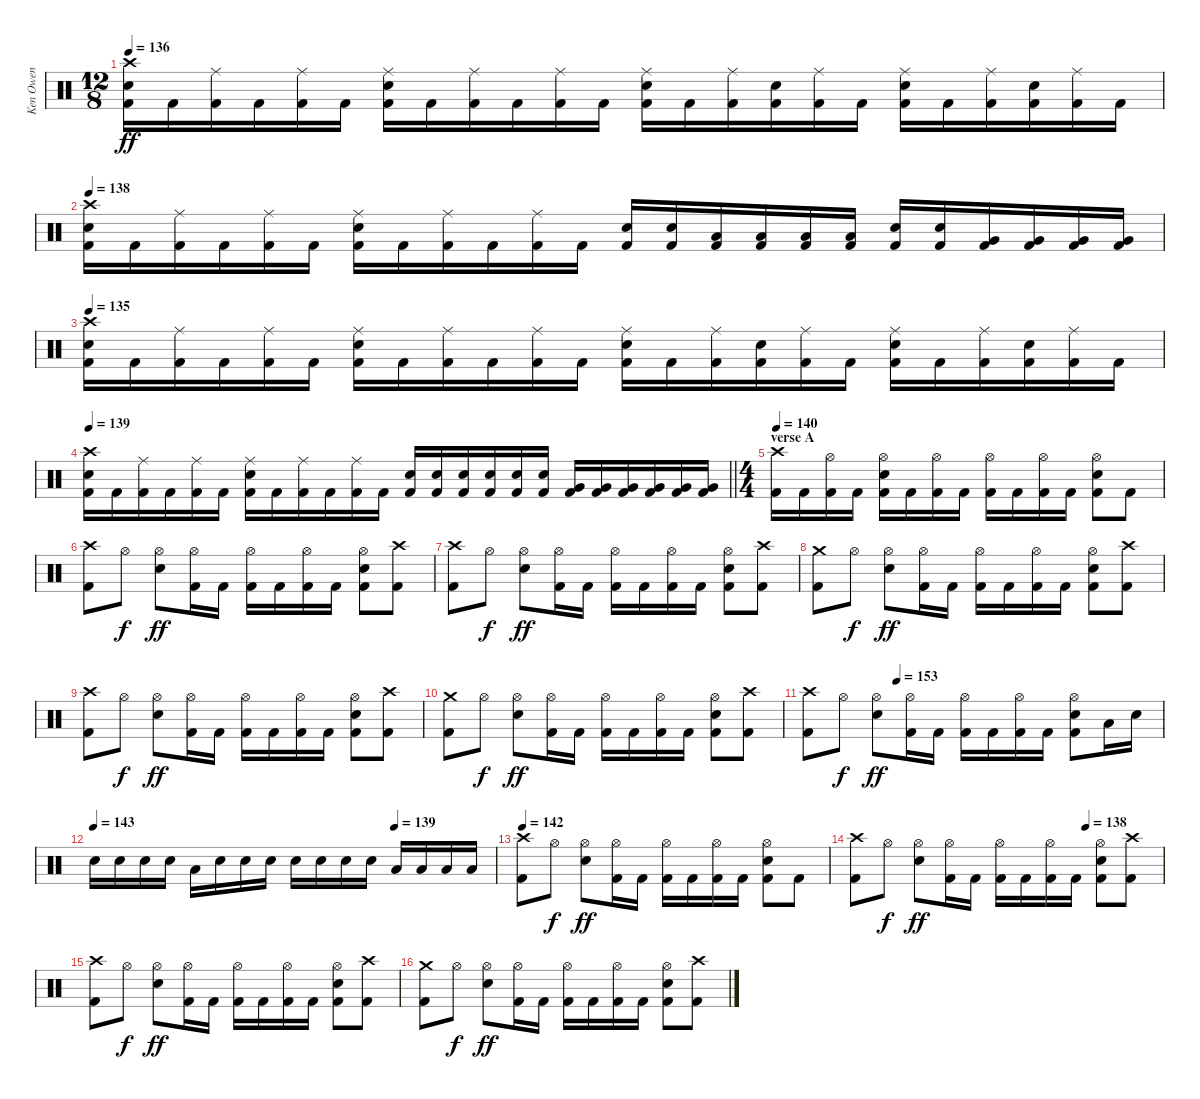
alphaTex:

\track ("Ken Owen" "Ken Owen") {instrument percussion}
\staff {score}
\articulation defaults
\ts (12 8)
\tempo 136
\clef neutral
\ks c
("Crash high (hit)" "Snare (hit) 2" "Kick (hit) 2").16{dy ff} "Kick (hit) 2".16 ("Ride (middle)" "Kick (hit) 2").16 "Kick (hit) 2".16 ("Ride (middle)" "Kick (hit) 2").16 "Kick (hit) 2".16 ("Ride (middle)" "Snare (hit) 2" "Kick (hit) 2").16 "Kick (hit) 2".16 ("Ride (middle)" "Kick (hit) 2").16 "Kick (hit) 2".16 ("Ride (middle)" "Kick (hit) 2").16 "Kick (hit) 2".16 ("Ride (middle)" "Snare (hit) 2" "Kick (hit) 2").16 "Kick (hit) 2".16 ("Ride (middle)" "Kick (hit) 2").16 ("Snare (hit) 2" "Kick (hit) 2").16 ("Ride (middle)" "Kick (hit) 2").16 "Kick (hit) 2".16 ("Ride (middle)" "Snare (hit) 2" "Kick (hit) 2").16 "Kick (hit) 2".16 ("Ride (middle)" "Kick (hit) 2").16 ("Snare (hit) 2" "Kick (hit) 2").16 ("Ride (middle)" "Kick (hit) 2").16 "Kick (hit) 2".16 |
\tempo 138
("Crash high (hit)" "Snare (hit) 2" "Kick (hit) 2").16 "Kick (hit) 2".16 ("Ride (middle)" "Kick (hit) 2").16 "Kick (hit) 2".16 ("Ride (middle)" "Kick (hit) 2").16 "Kick (hit) 2".16 ("Ride (middle)" "Snare (hit) 2" "Kick (hit) 2").16 "Kick (hit) 2".16 ("Ride (middle)" "Kick (hit) 2").16 "Kick (hit) 2".16 ("Ride (middle)" "Kick (hit) 2").16 "Kick (hit) 2".16 ("Snare (hit) 2" "Kick (hit) 2").16 ("Snare (hit) 2" "Kick (hit) 2").16 ("Low Tom (hit)" "Kick (hit) 2").16 ("Low Tom (hit)" "Kick (hit) 2").16 ("Low Tom (hit)" "Kick (hit) 2").16 ("Low Tom (hit)" "Kick (hit) 2").16 ("Snare (hit) 2" "Kick (hit) 2").16 ("Snare (hit) 2" "Kick (hit) 2").16 ("Very Low Tom (hit)" "Kick (hit) 2").16 ("Very Low Tom (hit)" "Kick (hit) 2").16 ("Very Low Tom (hit)" "Kick (hit) 2").16 ("Very Low Tom (hit)" "Kick (hit) 2").16 |
\tempo 135
("Crash high (hit)" "Snare (hit) 2" "Kick (hit) 2").16 "Kick (hit) 2".16 ("Ride (middle)" "Kick (hit) 2").16 "Kick (hit) 2".16 ("Ride (middle)" "Kick (hit) 2").16 "Kick (hit) 2".16 ("Ride (middle)" "Snare (hit) 2" "Kick (hit) 2").16 "Kick (hit) 2".16 ("Ride (middle)" "Kick (hit) 2").16 "Kick (hit) 2".16 ("Ride (middle)" "Kick (hit) 2").16 "Kick (hit) 2".16 ("Ride (middle)" "Snare (hit) 2" "Kick (hit) 2").16 "Kick (hit) 2".16 ("Ride (middle)" "Kick (hit) 2").16 ("Snare (hit) 2" "Kick (hit) 2").16 ("Ride (middle)" "Kick (hit) 2").16 "Kick (hit) 2".16 ("Ride (middle)" "Snare (hit) 2" "Kick (hit) 2").16 "Kick (hit) 2".16 ("Ride (middle)" "Kick (hit) 2").16 ("Snare (hit) 2" "Kick (hit) 2").16 ("Ride (middle)" "Kick (hit) 2").16 "Kick (hit) 2".16 |
\tempo 139
\barLineRight lightlight
("Crash high (hit)" "Snare (hit) 2" "Kick (hit) 2").16 "Kick (hit) 2".16 ("Ride (middle)" "Kick (hit) 2").16 "Kick (hit) 2".16 ("Ride (middle)" "Kick (hit) 2").16 "Kick (hit) 2".16 ("Ride (middle)" "Snare (hit) 2" "Kick (hit) 2").16 "Kick (hit) 2".16 ("Ride (middle)" "Kick (hit) 2").16 "Kick (hit) 2".16 ("Ride (middle)" "Kick (hit) 2").16 "Kick (hit) 2".16 ("Snare (hit) 2" "Kick (hit) 2").16 ("Snare (hit) 2" "Kick (hit) 2").16 ("Snare (hit) 2" "Kick (hit) 2").16 ("Snare (hit) 2" "Kick (hit) 2").16 ("Snare (hit) 2" "Kick (hit) 2").16 ("Snare (hit) 2" "Kick (hit) 2").16 ("Very Low Tom (hit)" "Kick (hit) 2").16 ("Very Low Tom (hit)" "Kick (hit) 2").16 ("Very Low Tom (hit)" "Kick (hit) 2").16 ("Very Low Tom (hit)" "Kick (hit) 2").16 ("Very Low Tom (hit)" "Kick (hit) 2").16 ("Very Low Tom (hit)" "Kick (hit) 2").16 |
\ts (4 4)
\section ("" "verse A")
\tempo 140
("Crash high (hit)" "Kick (hit) 2").16 "Kick (hit) 2".16 ("Hi-Hat (open)" "Kick (hit) 2").16 "Kick (hit) 2".16 ("Hi-Hat (open)" "Snare (hit) 2" "Kick (hit) 2").16 "Kick (hit) 2".16 ("Hi-Hat (open)" "Kick (hit) 2").16 "Kick (hit) 2".16 ("Hi-Hat (open)" "Kick (hit) 2").16 "Kick (hit) 2".16 ("Hi-Hat (open)" "Kick (hit) 2").16 "Kick (hit) 2".16 ("Hi-Hat (open)" "Snare (hit) 2" "Kick (hit) 2").8 "Kick (hit) 2".8 |
("Crash high (hit)" "Kick (hit) 2").8 "Hi-Hat (open)".8{dy f} ("Hi-Hat (open)" "Snare (hit) 2").8{dy ff} ("Hi-Hat (open)" "Kick (hit) 2").16 "Kick (hit) 2".16 ("Hi-Hat (open)" "Kick (hit) 2").16 "Kick (hit) 2".16 ("Hi-Hat (open)" "Kick (hit) 2").16 "Kick (hit) 2".16 ("Hi-Hat (open)" "Snare (hit) 2" "Kick (hit) 2").8 ("Crash high (hit)" "Kick (hit) 2").8 |
("Crash high (hit)" "Kick (hit) 2").8 "Hi-Hat (open)".8{dy f} ("Hi-Hat (open)" "Snare (hit) 2").8{dy ff} ("Hi-Hat (open)" "Kick (hit) 2").16 "Kick (hit) 2".16 ("Hi-Hat (open)" "Kick (hit) 2").16 "Kick (hit) 2".16 ("Hi-Hat (open)" "Kick (hit) 2").16 "Kick (hit) 2".16 ("Hi-Hat (open)" "Snare (hit) 2" "Kick (hit) 2").8 ("Crash high (hit)" "Kick (hit) 2").8 |
("Crash medium (hit)" "Kick (hit) 2").8 "Hi-Hat (open)".8{dy f} ("Hi-Hat (open)" "Snare (hit) 2").8{dy ff} ("Hi-Hat (open)" "Kick (hit) 2").16 "Kick (hit) 2".16 ("Hi-Hat (open)" "Kick (hit) 2").16 "Kick (hit) 2".16 ("Hi-Hat (open)" "Kick (hit) 2").16 "Kick (hit) 2".16 ("Hi-Hat (open)" "Snare (hit) 2" "Kick (hit) 2").8 ("Crash high (hit)" "Kick (hit) 2").8 |
("Crash high (hit)" "Kick (hit) 2").8 "Hi-Hat (open)".8{dy f} ("Hi-Hat (open)" "Snare (hit) 2").8{dy ff} ("Hi-Hat (open)" "Kick (hit) 2").16 "Kick (hit) 2".16 ("Hi-Hat (open)" "Kick (hit) 2").16 "Kick (hit) 2".16 ("Hi-Hat (open)" "Kick (hit) 2").16 "Kick (hit) 2".16 ("Hi-Hat (open)" "Snare (hit) 2" "Kick (hit) 2").8 ("Crash high (hit)" "Kick (hit) 2").8 |
("Crash medium (hit)" "Kick (hit) 2").8 "Hi-Hat (open)".8{dy f} ("Hi-Hat (open)" "Snare (hit) 2").8{dy ff} ("Hi-Hat (open)" "Kick (hit) 2").16 "Kick (hit) 2".16 ("Hi-Hat (open)" "Kick (hit) 2").16 "Kick (hit) 2".16 ("Hi-Hat (open)" "Kick (hit) 2").16 "Kick (hit) 2".16 ("Hi-Hat (open)" "Snare (hit) 2" "Kick (hit) 2").8 ("Crash high (hit)" "Kick (hit) 2").8 |
\tempo (153 0.25)
("Crash high (hit)" "Kick (hit) 2").8 "Hi-Hat (open)".8{dy f} ("Hi-Hat (open)" "Snare (hit) 2").8{dy ff} ("Hi-Hat (open)" "Kick (hit) 2").16 "Kick (hit) 2".16 ("Hi-Hat (open)" "Kick (hit) 2").16 "Kick (hit) 2".16 ("Hi-Hat (open)" "Kick (hit) 2").16 "Kick (hit) 2".16 ("Hi-Hat (open)" "Snare (hit) 2" "Kick (hit) 2").8 "Low Tom (hit)".16 "Snare (hit) 2".16 |
\tempo 143
\tempo (139 0.75)
"Snare (hit) 2".16 "Snare (hit) 2".16 "Snare (hit) 2".16 "Snare (hit) 2".16 "Low Tom (hit)".16 "Snare (hit) 2".16 "Snare (hit) 2".16 "Snare (hit) 2".16 "Snare (hit) 2".16 "Snare (hit) 2".16 "Snare (hit) 2".16 "Snare (hit) 2".16 "Low Tom (hit)".16 "Low Tom (hit)".16 "Low Tom (hit)".16 "Low Tom (hit)".16 |
\tempo 142
("Crash high (hit)" "Kick (hit) 2").8 "Hi-Hat (open)".8{dy f} ("Hi-Hat (open)" "Snare (hit) 2").8{dy ff} ("Hi-Hat (open)" "Kick (hit) 2").16 "Kick (hit) 2".16 ("Hi-Hat (open)" "Kick (hit) 2").16 "Kick (hit) 2".16 ("Hi-Hat (open)" "Kick (hit) 2").16 "Kick (hit) 2".16 ("Hi-Hat (open)" "Snare (hit) 2" "Kick (hit) 2").8 "Kick (hit) 2".8 |
\tempo (138 0.75)
("Crash high (hit)" "Kick (hit) 2").8 "Hi-Hat (open)".8{dy f} ("Hi-Hat (open)" "Snare (hit) 2").8{dy ff} ("Hi-Hat (open)" "Kick (hit) 2").16 "Kick (hit) 2".16 ("Hi-Hat (open)" "Kick (hit) 2").16 "Kick (hit) 2".16 ("Hi-Hat (open)" "Kick (hit) 2").16 "Kick (hit) 2".16 ("Hi-Hat (open)" "Snare (hit) 2" "Kick (hit) 2").8 ("Crash high (hit)" "Kick (hit) 2").8 |
("Crash high (hit)" "Kick (hit) 2").8 "Hi-Hat (open)".8{dy f} ("Hi-Hat (open)" "Snare (hit) 2").8{dy ff} ("Hi-Hat (open)" "Kick (hit) 2").16 "Kick (hit) 2".16 ("Hi-Hat (open)" "Kick (hit) 2").16 "Kick (hit) 2".16 ("Hi-Hat (open)" "Kick (hit) 2").16 "Kick (hit) 2".16 ("Hi-Hat (open)" "Snare (hit) 2" "Kick (hit) 2").8 ("Crash high (hit)" "Kick (hit) 2").8 |
("Crash medium (hit)" "Kick (hit) 2").8 "Hi-Hat (open)".8{dy f} ("Hi-Hat (open)" "Snare (hit) 2").8{dy ff} ("Hi-Hat (open)" "Kick (hit) 2").16 "Kick (hit) 2".16 ("Hi-Hat (open)" "Kick (hit) 2").16 "Kick (hit) 2".16 ("Hi-Hat (open)" "Kick (hit) 2").16 "Kick (hit) 2".16 ("Hi-Hat (open)" "Snare (hit) 2" "Kick (hit) 2").8 ("Crash high (hit)" "Kick (hit) 2").8
